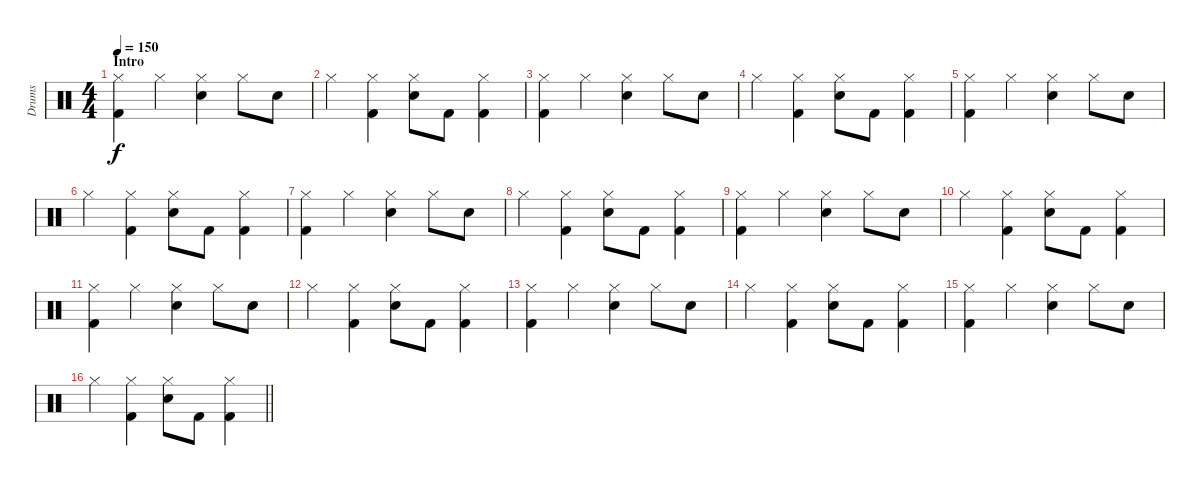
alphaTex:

\track ("Drums" "Drums") {instrument percussion}
\staff {score}
\articulation defaults
\ts (4 4)
\section ("" "Intro")
\tempo 150
\clef neutral
\ks c
("Hi-Hat (closed)" "Kick (hit) 2").4{dy f} "Hi-Hat (closed)".4 ("Hi-Hat (closed)" "Electric Snare (hit)").4 "Hi-Hat (closed)".8 "Electric Snare (hit)".8 |
"Hi-Hat (closed)".4 ("Hi-Hat (closed)" "Kick (hit) 2").4 ("Hi-Hat (closed)" "Electric Snare (hit)").8 "Kick (hit) 2".8 ("Hi-Hat (closed)" "Kick (hit) 2").4 |
("Hi-Hat (closed)" "Kick (hit) 2").4 "Hi-Hat (closed)".4 ("Hi-Hat (closed)" "Electric Snare (hit)").4 "Hi-Hat (closed)".8 "Electric Snare (hit)".8 |
"Hi-Hat (closed)".4 ("Hi-Hat (closed)" "Kick (hit) 2").4 ("Hi-Hat (closed)" "Electric Snare (hit)").8 "Kick (hit) 2".8 ("Hi-Hat (closed)" "Kick (hit) 2").4 |
("Hi-Hat (closed)" "Kick (hit) 2").4 "Hi-Hat (closed)".4 ("Hi-Hat (closed)" "Electric Snare (hit)").4 "Hi-Hat (closed)".8 "Electric Snare (hit)".8 |
"Hi-Hat (closed)".4 ("Hi-Hat (closed)" "Kick (hit) 2").4 ("Hi-Hat (closed)" "Electric Snare (hit)").8 "Kick (hit) 2".8 ("Hi-Hat (closed)" "Kick (hit) 2").4 |
("Hi-Hat (closed)" "Kick (hit) 2").4 "Hi-Hat (closed)".4 ("Hi-Hat (closed)" "Electric Snare (hit)").4 "Hi-Hat (closed)".8 "Electric Snare (hit)".8 |
"Hi-Hat (closed)".4 ("Hi-Hat (closed)" "Kick (hit) 2").4 ("Hi-Hat (closed)" "Electric Snare (hit)").8 "Kick (hit) 2".8 ("Hi-Hat (closed)" "Kick (hit) 2").4 |
("Hi-Hat (closed)" "Kick (hit) 2").4 "Hi-Hat (closed)".4 ("Hi-Hat (closed)" "Electric Snare (hit)").4 "Hi-Hat (closed)".8 "Electric Snare (hit)".8 |
"Hi-Hat (closed)".4 ("Hi-Hat (closed)" "Kick (hit) 2").4 ("Hi-Hat (closed)" "Electric Snare (hit)").8 "Kick (hit) 2".8 ("Hi-Hat (closed)" "Kick (hit) 2").4 |
("Hi-Hat (closed)" "Kick (hit) 2").4 "Hi-Hat (closed)".4 ("Hi-Hat (closed)" "Electric Snare (hit)").4 "Hi-Hat (closed)".8 "Electric Snare (hit)".8 |
"Hi-Hat (closed)".4 ("Hi-Hat (closed)" "Kick (hit) 2").4 ("Hi-Hat (closed)" "Electric Snare (hit)").8 "Kick (hit) 2".8 ("Hi-Hat (closed)" "Kick (hit) 2").4 |
("Hi-Hat (closed)" "Kick (hit) 2").4 "Hi-Hat (closed)".4 ("Hi-Hat (closed)" "Electric Snare (hit)").4 "Hi-Hat (closed)".8 "Electric Snare (hit)".8 |
"Hi-Hat (closed)".4 ("Hi-Hat (closed)" "Kick (hit) 2").4 ("Hi-Hat (closed)" "Electric Snare (hit)").8 "Kick (hit) 2".8 ("Hi-Hat (closed)" "Kick (hit) 2").4 |
("Hi-Hat (closed)" "Kick (hit) 2").4 "Hi-Hat (closed)".4 ("Hi-Hat (closed)" "Electric Snare (hit)").4 "Hi-Hat (closed)".8 "Electric Snare (hit)".8 |
\barLineRight lightlight "Hi-Hat (closed)".4
("Hi-Hat (closed)" "Kick (hit) 2").4 ("Hi-Hat (closed)" "Electric Snare (hit)").8 "Kick (hit) 2".8 ("Hi-Hat (closed)" "Kick (hit) 2").4
